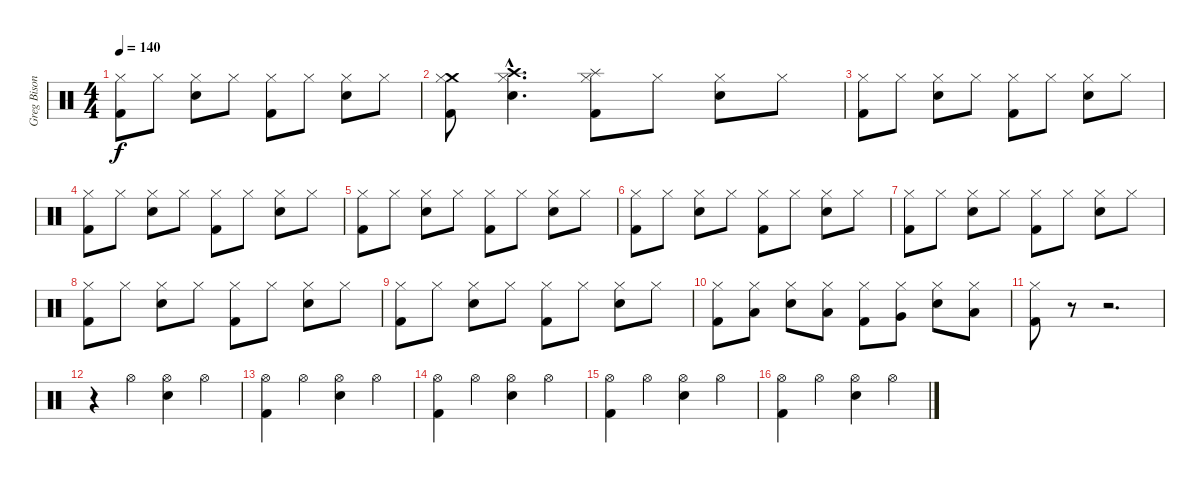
\track ("Greg Bisonette" "Greg Bison") {instrument percussion}
\staff {score}
\articulation defaults
\ts (4 4)
\tempo 140
\clef neutral
\ks c
("Hi-Hat (closed)" "Kick (hit) 2").8{dy f} "Hi-Hat (closed)".8 ("Hi-Hat (closed)" "Electric Snare (hit)").8 "Hi-Hat (closed)".8 ("Hi-Hat (closed)" "Kick (hit) 2").8 "Hi-Hat (closed)".8 ("Hi-Hat (closed)" "Electric Snare (hit)").8 "Hi-Hat (closed)".8 |
("Crash medium (hit)" "Hi-Hat (closed)" "Kick (hit) 2").8 ("Crash high (hit)"{hac} "Hi-Hat (closed)"{hac} "Electric Snare (hit)"{hac}).4{d} ("Splash (hit)" "Hi-Hat (closed)" "Kick (hit) 2").8 "Hi-Hat (closed)".8 ("Hi-Hat (closed)" "Electric Snare (hit)").8 "Hi-Hat (closed)".8 |
("Hi-Hat (closed)" "Kick (hit) 2").8 "Hi-Hat (closed)".8 ("Hi-Hat (closed)" "Electric Snare (hit)").8 "Hi-Hat (closed)".8 ("Hi-Hat (closed)" "Kick (hit) 2").8 "Hi-Hat (closed)".8 ("Hi-Hat (closed)" "Electric Snare (hit)").8 "Hi-Hat (closed)".8 |
("Hi-Hat (closed)" "Kick (hit) 2").8 "Hi-Hat (closed)".8 ("Hi-Hat (closed)" "Electric Snare (hit)").8 "Hi-Hat (closed)".8 ("Hi-Hat (closed)" "Kick (hit) 2").8 "Hi-Hat (closed)".8 ("Hi-Hat (closed)" "Electric Snare (hit)").8 "Hi-Hat (closed)".8 |
("Hi-Hat (closed)" "Kick (hit) 2").8 "Hi-Hat (closed)".8 ("Hi-Hat (closed)" "Electric Snare (hit)").8 "Hi-Hat (closed)".8 ("Hi-Hat (closed)" "Kick (hit) 2").8 "Hi-Hat (closed)".8 ("Hi-Hat (closed)" "Electric Snare (hit)").8 "Hi-Hat (closed)".8 |
("Hi-Hat (closed)" "Kick (hit) 2").8 "Hi-Hat (closed)".8 ("Hi-Hat (closed)" "Electric Snare (hit)").8 "Hi-Hat (closed)".8 ("Hi-Hat (closed)" "Kick (hit) 2").8 "Hi-Hat (closed)".8 ("Hi-Hat (closed)" "Electric Snare (hit)").8 "Hi-Hat (closed)".8 |
("Hi-Hat (closed)" "Kick (hit) 2").8 "Hi-Hat (closed)".8 ("Hi-Hat (closed)" "Electric Snare (hit)").8 "Hi-Hat (closed)".8 ("Hi-Hat (closed)" "Kick (hit) 2").8 "Hi-Hat (closed)".8 ("Hi-Hat (closed)" "Electric Snare (hit)").8 "Hi-Hat (closed)".8 |
("Hi-Hat (closed)" "Kick (hit) 2").8 "Hi-Hat (closed)".8 ("Hi-Hat (closed)" "Electric Snare (hit)").8 "Hi-Hat (closed)".8 ("Hi-Hat (closed)" "Kick (hit) 2").8 "Hi-Hat (closed)".8 ("Hi-Hat (closed)" "Electric Snare (hit)").8 "Hi-Hat (closed)".8 |
("Hi-Hat (closed)" "Kick (hit) 2").8 "Hi-Hat (closed)".8 ("Hi-Hat (closed)" "Electric Snare (hit)").8 "Hi-Hat (closed)".8 ("Hi-Hat (closed)" "Kick (hit) 2").8 "Hi-Hat (closed)".8 ("Hi-Hat (closed)" "Electric Snare (hit)").8 "Hi-Hat (closed)".8 |
("Hi-Hat (closed)" "Kick (hit) 2").8 ("Hi-Hat (closed)" "Low Floor Tom (hit)").8 ("Hi-Hat (closed)" "Electric Snare (hit)").8 ("Hi-Hat (closed)" "Low Tom (hit)").8 ("Hi-Hat (closed)" "Kick (hit) 2").8 ("Hi-Hat (closed)" "Very Low Tom (hit)").8 ("Hi-Hat (closed)" "Electric Snare (hit)").8 ("Hi-Hat (closed)" "Low Floor Tom (hit)").8 |
("Hi-Hat (closed)" "Kick (hit) 2").8 r.8 r.2{d} |
r.4 "Hi-Hat (open)"{x}.4 ("Hi-Hat (open)"{x} "Electric Snare (hit)"{x}).4 "Hi-Hat (open)"{x}.4 |
("Hi-Hat (open)" "Kick (hit) 2").4 "Hi-Hat (open)".4 ("Hi-Hat (open)" "Electric Snare (hit)").4 "Hi-Hat (open)".4 |
("Hi-Hat (open)" "Kick (hit) 2").4 "Hi-Hat (open)".4 ("Hi-Hat (open)" "Electric Snare (hit)").4 "Hi-Hat (open)".4 |
("Hi-Hat (open)" "Kick (hit) 2").4 "Hi-Hat (open)".4 ("Hi-Hat (open)" "Electric Snare (hit)").4 "Hi-Hat (open)".4 |
("Hi-Hat (open)" "Kick (hit) 2").4 "Hi-Hat (open)".4 ("Hi-Hat (open)" "Electric Snare (hit)").4 "Hi-Hat (open)".4
